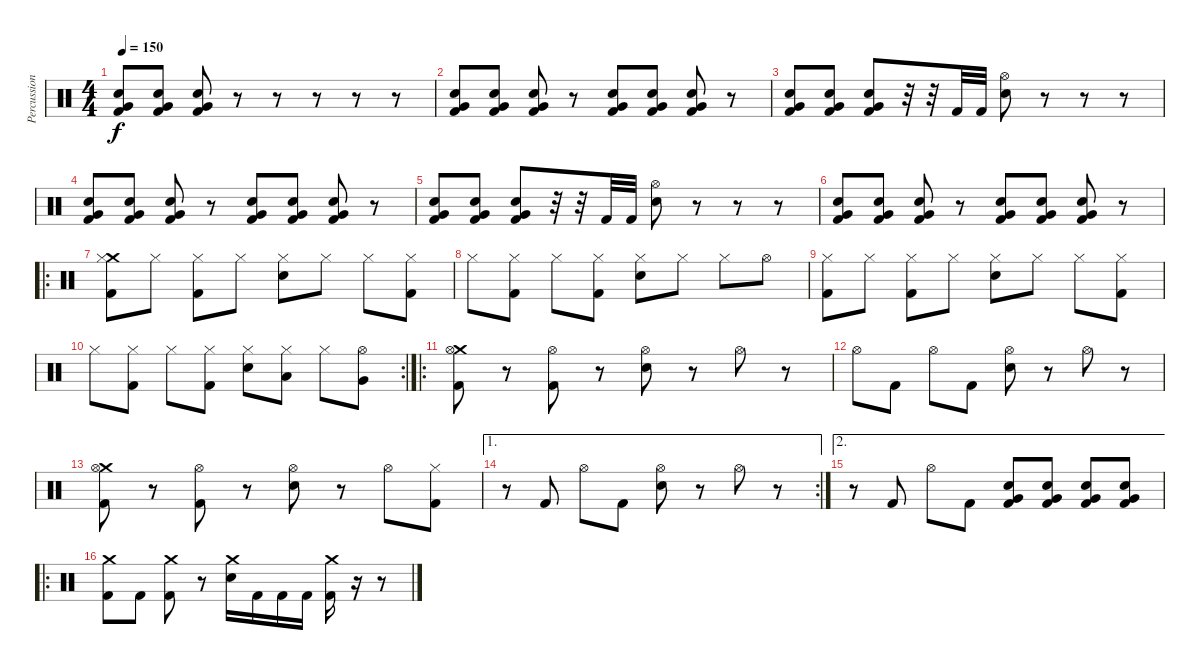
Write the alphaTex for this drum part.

\track ("Percussion" "Percussion") {instrument percussion}
\staff {score}
\articulation defaults
\ts (4 4)
\tempo 150
\clef neutral
\ks c
("Very Low Tom (hit)" "Electric Snare (hit)" "Kick (hit) 2").8{dy f} ("Very Low Tom (hit)" "Electric Snare (hit)" "Kick (hit) 2").8 ("Very Low Tom (hit)" "Electric Snare (hit)" "Kick (hit) 2").8 r.8 r.8 r.8 r.8 r.8 |
("Very Low Tom (hit)" "Electric Snare (hit)" "Kick (hit) 2").8 ("Very Low Tom (hit)" "Electric Snare (hit)" "Kick (hit) 2").8 ("Very Low Tom (hit)" "Electric Snare (hit)" "Kick (hit) 2").8 r.8 ("Very Low Tom (hit)" "Electric Snare (hit)" "Kick (hit) 2").8 ("Very Low Tom (hit)" "Electric Snare (hit)" "Kick (hit) 2").8 ("Very Low Tom (hit)" "Electric Snare (hit)" "Kick (hit) 2").8 r.8 |
("Very Low Tom (hit)" "Electric Snare (hit)" "Kick (hit) 2").8 ("Very Low Tom (hit)" "Electric Snare (hit)" "Kick (hit) 2").8 ("Very Low Tom (hit)" "Electric Snare (hit)" "Kick (hit) 2").8 r.32 r.32 "Kick (hit) 2".32 "Kick (hit) 2".32 ("Hi-Hat (open)" "Electric Snare (hit)").8 r.8 r.8 r.8 |
("Very Low Tom (hit)" "Electric Snare (hit)" "Kick (hit) 2").8 ("Very Low Tom (hit)" "Electric Snare (hit)" "Kick (hit) 2").8 ("Very Low Tom (hit)" "Electric Snare (hit)" "Kick (hit) 2").8 r.8 ("Very Low Tom (hit)" "Electric Snare (hit)" "Kick (hit) 2").8 ("Very Low Tom (hit)" "Electric Snare (hit)" "Kick (hit) 2").8 ("Very Low Tom (hit)" "Electric Snare (hit)" "Kick (hit) 2").8 r.8 |
("Very Low Tom (hit)" "Electric Snare (hit)" "Kick (hit) 2").8 ("Very Low Tom (hit)" "Electric Snare (hit)" "Kick (hit) 2").8 ("Very Low Tom (hit)" "Electric Snare (hit)" "Kick (hit) 2").8 r.32 r.32 "Kick (hit) 2".32 "Kick (hit) 2".32 ("Hi-Hat (open)" "Electric Snare (hit)").8 r.8 r.8 r.8 |
("Very Low Tom (hit)" "Electric Snare (hit)" "Kick (hit) 2").8 ("Very Low Tom (hit)" "Electric Snare (hit)" "Kick (hit) 2").8 ("Very Low Tom (hit)" "Electric Snare (hit)" "Kick (hit) 2").8 r.8 ("Very Low Tom (hit)" "Electric Snare (hit)" "Kick (hit) 2").8 ("Very Low Tom (hit)" "Electric Snare (hit)" "Kick (hit) 2").8 ("Very Low Tom (hit)" "Electric Snare (hit)" "Kick (hit) 2").8 r.8 |
\ro
("Kick (hit) 2" "Crash medium (hit)" "Hi-Hat (closed)").8 "Hi-Hat (closed)".8 ("Kick (hit) 2" "Hi-Hat (closed)").8 "Hi-Hat (closed)".8 ("Electric Snare (hit)" "Hi-Hat (closed)").8 "Hi-Hat (closed)".8 "Hi-Hat (closed)".8 ("Kick (hit) 2" "Hi-Hat (closed)").8 |
"Hi-Hat (closed)".8 ("Kick (hit) 2" "Hi-Hat (closed)").8 "Hi-Hat (closed)".8 ("Kick (hit) 2" "Hi-Hat (closed)").8 ("Electric Snare (hit)" "Hi-Hat (closed)").8 "Hi-Hat (closed)".8 "Hi-Hat (closed)".8 "Hi-Hat (open)".8 |
("Kick (hit) 2" "Hi-Hat (closed)").8 "Hi-Hat (closed)".8 ("Kick (hit) 2" "Hi-Hat (closed)").8 "Hi-Hat (closed)".8 ("Electric Snare (hit)" "Hi-Hat (closed)").8 "Hi-Hat (closed)".8 "Hi-Hat (closed)".8 ("Kick (hit) 2" "Hi-Hat (closed)").8 |
\rc 2 "Hi-Hat (closed)".8
("Kick (hit) 2" "Hi-Hat (closed)").8 "Hi-Hat (closed)".8 ("Kick (hit) 2" "Hi-Hat (closed)").8 ("Electric Snare (hit)" "Hi-Hat (closed)").8 ("Low Tom (hit)" "Hi-Hat (closed)").8 "Hi-Hat (closed)".8 ("Very Low Tom (hit)" "Hi-Hat (open)").8 |
\ro
("Kick (hit) 2" "Crash medium (hit)" "Hi-Hat (open)").8 r.8 ("Kick (hit) 2" "Hi-Hat (open)").8 r.8 ("Electric Snare (hit)" "Hi-Hat (open)").8 r.8 "Hi-Hat (open)".8 r.8 |
"Hi-Hat (open)".8 "Kick (hit) 2".8 "Hi-Hat (open)".8 "Kick (hit) 2".8 ("Electric Snare (hit)" "Hi-Hat (open)").8 r.8 "Hi-Hat (open)".8 r.8 |
("Kick (hit) 2" "Crash medium (hit)" "Hi-Hat (open)").8 r.8 ("Kick (hit) 2" "Hi-Hat (open)").8 r.8 ("Electric Snare (hit)" "Hi-Hat (open)").8 r.8 "Hi-Hat (open)".8 ("Kick (hit) 2" "Hi-Hat (closed)").8 |
\ae 1
\rc 2
r.8 "Kick (hit) 2".8 "Hi-Hat (open)".8 "Kick (hit) 2".8 ("Electric Snare (hit)" "Hi-Hat (open)").8 r.8 "Hi-Hat (open)".8 r.8 |
\ae 2
r.8 "Kick (hit) 2".8 "Hi-Hat (open)".8 "Kick (hit) 2".8 ("Electric Snare (hit)" "Very Low Tom (hit)" "Kick (hit) 2").8 ("Electric Snare (hit)" "Very Low Tom (hit)" "Kick (hit) 2").8 ("Electric Snare (hit)" "Very Low Tom (hit)" "Kick (hit) 2").8 ("Electric Snare (hit)" "Very Low Tom (hit)" "Kick (hit) 2").8 |
\ro
("Crash medium (hit)" "Kick (hit) 2").8 "Kick (hit) 2".8 ("Crash medium (hit)" "Kick (hit) 2").8 r.8 ("Crash medium (hit)" "Electric Snare (hit)").16 "Kick (hit) 2".16 "Kick (hit) 2".16 "Kick (hit) 2".16 ("Crash medium (hit)" "Kick (hit) 2").16 r.16 r.8
